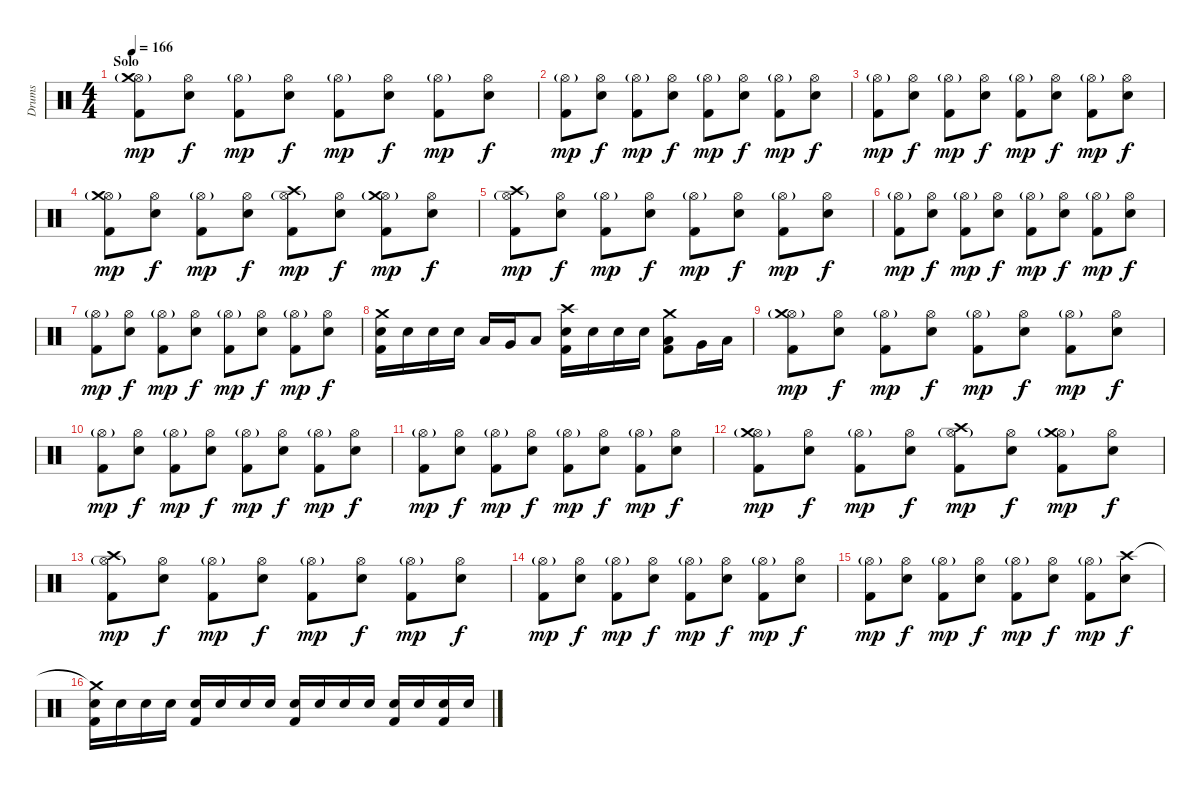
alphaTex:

\track ("Drums" "Drums") {instrument percussion}
\staff {score}
\articulation defaults
\ts (4 4)
\section ("" "Solo")
\tempo 166
\clef neutral
\ks c
("Hi-Hat (open)"{g} "Crash medium (hit)" "Kick (hit) 2").8{dy mp} ("Hi-Hat (open)" "Electric Snare (hit)").8{dy f} ("Hi-Hat (open)"{g} "Kick (hit) 2").8{dy mp} ("Hi-Hat (open)" "Electric Snare (hit)").8{dy f} ("Hi-Hat (open)"{g} "Kick (hit) 2").8{dy mp} ("Hi-Hat (open)" "Electric Snare (hit)").8{dy f} ("Hi-Hat (open)"{g} "Kick (hit) 2").8{dy mp} ("Hi-Hat (open)" "Electric Snare (hit)").8{dy f} |
("Hi-Hat (open)"{g} "Kick (hit) 2").8{dy mp} ("Hi-Hat (open)" "Electric Snare (hit)").8{dy f} ("Hi-Hat (open)"{g} "Kick (hit) 2").8{dy mp} ("Hi-Hat (open)" "Electric Snare (hit)").8{dy f} ("Hi-Hat (open)"{g} "Kick (hit) 2").8{dy mp} ("Hi-Hat (open)" "Electric Snare (hit)").8{dy f} ("Hi-Hat (open)"{g} "Kick (hit) 2").8{dy mp} ("Hi-Hat (open)" "Electric Snare (hit)").8{dy f} |
("Hi-Hat (open)"{g} "Kick (hit) 2").8{dy mp} ("Hi-Hat (open)" "Electric Snare (hit)").8{dy f} ("Hi-Hat (open)"{g} "Kick (hit) 2").8{dy mp} ("Hi-Hat (open)" "Electric Snare (hit)").8{dy f} ("Hi-Hat (open)"{g} "Kick (hit) 2").8{dy mp} ("Hi-Hat (open)" "Electric Snare (hit)").8{dy f} ("Hi-Hat (open)"{g} "Kick (hit) 2").8{dy mp} ("Hi-Hat (open)" "Electric Snare (hit)").8{dy f} |
("Hi-Hat (open)"{g} "Crash medium (hit)" "Kick (hit) 2").8{dy mp} ("Hi-Hat (open)" "Electric Snare (hit)").8{dy f} ("Hi-Hat (open)"{g} "Kick (hit) 2").8{dy mp} ("Hi-Hat (open)" "Electric Snare (hit)").8{dy f} ("Hi-Hat (open)"{g} "Crash high (hit)" "Kick (hit) 2").8{dy mp} ("Hi-Hat (open)" "Electric Snare (hit)").8{dy f} ("Hi-Hat (open)"{g} "Crash medium (hit)" "Kick (hit) 2").8{dy mp} ("Hi-Hat (open)" "Electric Snare (hit)").8{dy f} |
("Hi-Hat (open)"{g} "Crash high (hit)" "Kick (hit) 2").8{dy mp} ("Hi-Hat (open)" "Electric Snare (hit)").8{dy f} ("Hi-Hat (open)"{g} "Kick (hit) 2").8{dy mp} ("Hi-Hat (open)" "Electric Snare (hit)").8{dy f} ("Hi-Hat (open)"{g} "Kick (hit) 2").8{dy mp} ("Hi-Hat (open)" "Electric Snare (hit)").8{dy f} ("Hi-Hat (open)"{g} "Kick (hit) 2").8{dy mp} ("Hi-Hat (open)" "Electric Snare (hit)").8{dy f} |
("Hi-Hat (open)"{g} "Kick (hit) 2").8{dy mp} ("Hi-Hat (open)" "Electric Snare (hit)").8{dy f} ("Hi-Hat (open)"{g} "Kick (hit) 2").8{dy mp} ("Hi-Hat (open)" "Electric Snare (hit)").8{dy f} ("Hi-Hat (open)"{g} "Kick (hit) 2").8{dy mp} ("Hi-Hat (open)" "Electric Snare (hit)").8{dy f} ("Hi-Hat (open)"{g} "Kick (hit) 2").8{dy mp} ("Hi-Hat (open)" "Electric Snare (hit)").8{dy f} |
("Hi-Hat (open)"{g} "Kick (hit) 2").8{dy mp} ("Hi-Hat (open)" "Electric Snare (hit)").8{dy f} ("Hi-Hat (open)"{g} "Kick (hit) 2").8{dy mp} ("Hi-Hat (open)" "Electric Snare (hit)").8{dy f} ("Hi-Hat (open)"{g} "Kick (hit) 2").8{dy mp} ("Hi-Hat (open)" "Electric Snare (hit)").8{dy f} ("Hi-Hat (open)"{g} "Kick (hit) 2").8{dy mp} ("Hi-Hat (open)" "Electric Snare (hit)").8{dy f} |
("Crash medium (hit)" "Electric Snare (hit)" "Kick (hit) 2").16 "Electric Snare (hit)".16 "Electric Snare (hit)".16 "Electric Snare (hit)".16 "Low Tom (hit)".16 "Very Low Tom (hit)".16 "Low Floor Tom (hit)".8 ("Crash high (hit)" "Electric Snare (hit)" "Kick (hit) 2").16 "Electric Snare (hit)".16 "Electric Snare (hit)".16 "Electric Snare (hit)".16 ("Crash medium (hit)" "Low Tom (hit)" "Kick (hit) 2").8 "Very Low Tom (hit)".16 "Low Floor Tom (hit)".16 |
("Hi-Hat (open)"{g} "Crash medium (hit)" "Kick (hit) 2").8{dy mp} ("Hi-Hat (open)" "Electric Snare (hit)").8{dy f} ("Hi-Hat (open)"{g} "Kick (hit) 2").8{dy mp} ("Hi-Hat (open)" "Electric Snare (hit)").8{dy f} ("Hi-Hat (open)"{g} "Kick (hit) 2").8{dy mp} ("Hi-Hat (open)" "Electric Snare (hit)").8{dy f} ("Hi-Hat (open)"{g} "Kick (hit) 2").8{dy mp} ("Hi-Hat (open)" "Electric Snare (hit)").8{dy f} |
("Hi-Hat (open)"{g} "Kick (hit) 2").8{dy mp} ("Hi-Hat (open)" "Electric Snare (hit)").8{dy f} ("Hi-Hat (open)"{g} "Kick (hit) 2").8{dy mp} ("Hi-Hat (open)" "Electric Snare (hit)").8{dy f} ("Hi-Hat (open)"{g} "Kick (hit) 2").8{dy mp} ("Hi-Hat (open)" "Electric Snare (hit)").8{dy f} ("Hi-Hat (open)"{g} "Kick (hit) 2").8{dy mp} ("Hi-Hat (open)" "Electric Snare (hit)").8{dy f} |
("Hi-Hat (open)"{g} "Kick (hit) 2").8{dy mp} ("Hi-Hat (open)" "Electric Snare (hit)").8{dy f} ("Hi-Hat (open)"{g} "Kick (hit) 2").8{dy mp} ("Hi-Hat (open)" "Electric Snare (hit)").8{dy f} ("Hi-Hat (open)"{g} "Kick (hit) 2").8{dy mp} ("Hi-Hat (open)" "Electric Snare (hit)").8{dy f} ("Hi-Hat (open)"{g} "Kick (hit) 2").8{dy mp} ("Hi-Hat (open)" "Electric Snare (hit)").8{dy f} |
("Hi-Hat (open)"{g} "Crash medium (hit)" "Kick (hit) 2").8{dy mp} ("Hi-Hat (open)" "Electric Snare (hit)").8{dy f} ("Hi-Hat (open)"{g} "Kick (hit) 2").8{dy mp} ("Hi-Hat (open)" "Electric Snare (hit)").8{dy f} ("Hi-Hat (open)"{g} "Crash high (hit)" "Kick (hit) 2").8{dy mp} ("Hi-Hat (open)" "Electric Snare (hit)").8{dy f} ("Hi-Hat (open)"{g} "Crash medium (hit)" "Kick (hit) 2").8{dy mp} ("Hi-Hat (open)" "Electric Snare (hit)").8{dy f} |
("Hi-Hat (open)"{g} "Crash high (hit)" "Kick (hit) 2").8{dy mp} ("Hi-Hat (open)" "Electric Snare (hit)").8{dy f} ("Hi-Hat (open)"{g} "Kick (hit) 2").8{dy mp} ("Hi-Hat (open)" "Electric Snare (hit)").8{dy f} ("Hi-Hat (open)"{g} "Kick (hit) 2").8{dy mp} ("Hi-Hat (open)" "Electric Snare (hit)").8{dy f} ("Hi-Hat (open)"{g} "Kick (hit) 2").8{dy mp} ("Hi-Hat (open)" "Electric Snare (hit)").8{dy f} |
("Hi-Hat (open)"{g} "Kick (hit) 2").8{dy mp} ("Hi-Hat (open)" "Electric Snare (hit)").8{dy f} ("Hi-Hat (open)"{g} "Kick (hit) 2").8{dy mp} ("Hi-Hat (open)" "Electric Snare (hit)").8{dy f} ("Hi-Hat (open)"{g} "Kick (hit) 2").8{dy mp} ("Hi-Hat (open)" "Electric Snare (hit)").8{dy f} ("Hi-Hat (open)"{g} "Kick (hit) 2").8{dy mp} ("Hi-Hat (open)" "Electric Snare (hit)").8{dy f} |
("Hi-Hat (open)"{g} "Kick (hit) 2").8{dy mp} ("Hi-Hat (open)" "Electric Snare (hit)").8{dy f} ("Hi-Hat (open)"{g} "Kick (hit) 2").8{dy mp} ("Hi-Hat (open)" "Electric Snare (hit)").8{dy f} ("Hi-Hat (open)"{g} "Kick (hit) 2").8{dy mp} ("Hi-Hat (open)" "Electric Snare (hit)").8{dy f} ("Hi-Hat (open)"{g} "Kick (hit) 2").8{dy mp} ("Crash high (hit)" "Electric Snare (hit)").8{dy f} |
("Crash medium (hit)"{t} "Electric Snare (hit)" "Kick (hit) 2").16 "Electric Snare (hit)".16 "Electric Snare (hit)".16 "Electric Snare (hit)".16 ("Electric Snare (hit)" "Kick (hit) 2").16 "Electric Snare (hit)".16 "Electric Snare (hit)".16 "Electric Snare (hit)".16 ("Electric Snare (hit)" "Kick (hit) 2").16 "Electric Snare (hit)".16 "Electric Snare (hit)".16 "Electric Snare (hit)".16 ("Electric Snare (hit)" "Kick (hit) 2").16 "Electric Snare (hit)".16 ("Electric Snare (hit)" "Kick (hit) 2").16 "Electric Snare (hit)".16
